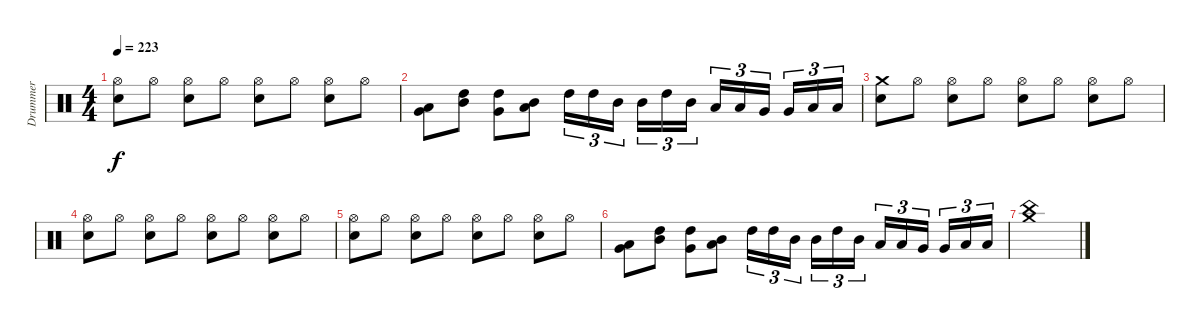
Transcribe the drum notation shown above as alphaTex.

\track ("Drummer" "Drummer") {instrument percussion}
\staff {score}
\articulation defaults
\ts (4 4)
\tempo 223
\clef neutral
\ks c
("Hi-Hat (open)" "Electric Snare (hit)").8{dy f} "Hi-Hat (open)".8 ("Hi-Hat (open)" "Electric Snare (hit)").8 "Hi-Hat (open)".8 ("Hi-Hat (open)" "Electric Snare (hit)").8 "Hi-Hat (open)".8 ("Hi-Hat (open)" "Electric Snare (hit)").8 "Hi-Hat (open)".8 |
("Very Low Tom (hit)" "Low Tom (hit)").8 ("Mid Tom (hit)" "High Tom (hit)").8 ("High Tom (hit)" "Very Low Tom (hit)").8 ("Low Floor Tom (hit)" "Mid Tom (hit)").8 "High Tom (hit)".16{tu (3 2)} "High Tom (hit)".16{tu (3 2)} "Mid Tom (hit)".16{tu (3 2) beam splitsecondary} "Mid Tom (hit)".16{tu (3 2)} "High Tom (hit)".16{tu (3 2)} "Mid Tom (hit)".16{tu (3 2)} "Low Tom (hit)".16{tu (3 2)} "Low Tom (hit)".16{tu (3 2)} "Very Low Tom (hit)".16{tu (3 2) beam splitsecondary} "Very Low Tom (hit)".16{tu (3 2)} "Low Floor Tom (hit)".16{tu (3 2)} "Low Floor Tom (hit)".16{tu (3 2)} |
("Crash medium (hit)" "Electric Snare (hit)").8 "Hi-Hat (open)".8 ("Hi-Hat (open)" "Electric Snare (hit)").8 "Hi-Hat (open)".8 ("Hi-Hat (open)" "Electric Snare (hit)").8 "Hi-Hat (open)".8 ("Hi-Hat (open)" "Electric Snare (hit)").8 "Hi-Hat (open)".8 |
("Hi-Hat (open)" "Electric Snare (hit)").8 "Hi-Hat (open)".8 ("Hi-Hat (open)" "Electric Snare (hit)").8 "Hi-Hat (open)".8 ("Hi-Hat (open)" "Electric Snare (hit)").8 "Hi-Hat (open)".8 ("Hi-Hat (open)" "Electric Snare (hit)").8 "Hi-Hat (open)".8 |
("Hi-Hat (open)" "Electric Snare (hit)").8 "Hi-Hat (open)".8 ("Hi-Hat (open)" "Electric Snare (hit)").8 "Hi-Hat (open)".8 ("Hi-Hat (open)" "Electric Snare (hit)").8 "Hi-Hat (open)".8 ("Hi-Hat (open)" "Electric Snare (hit)").8 "Hi-Hat (open)".8 |
("Very Low Tom (hit)" "Low Tom (hit)").8 ("Mid Tom (hit)" "High Tom (hit)").8 ("High Tom (hit)" "Very Low Tom (hit)").8 ("Low Floor Tom (hit)" "Mid Tom (hit)").8 "High Tom (hit)".16{tu (3 2)} "High Tom (hit)".16{tu (3 2)} "Mid Tom (hit)".16{tu (3 2) beam splitsecondary} "Mid Tom (hit)".16{tu (3 2)} "High Tom (hit)".16{tu (3 2)} "Mid Tom (hit)".16{tu (3 2)} "Low Tom (hit)".16{tu (3 2)} "Low Tom (hit)".16{tu (3 2)} "Very Low Tom (hit)".16{tu (3 2) beam splitsecondary} "Very Low Tom (hit)".16{tu (3 2)} "Low Floor Tom (hit)".16{tu (3 2)} "Low Floor Tom (hit)".16{tu (3 2)} |
("Crash medium (hit)" "China (hit)").1
